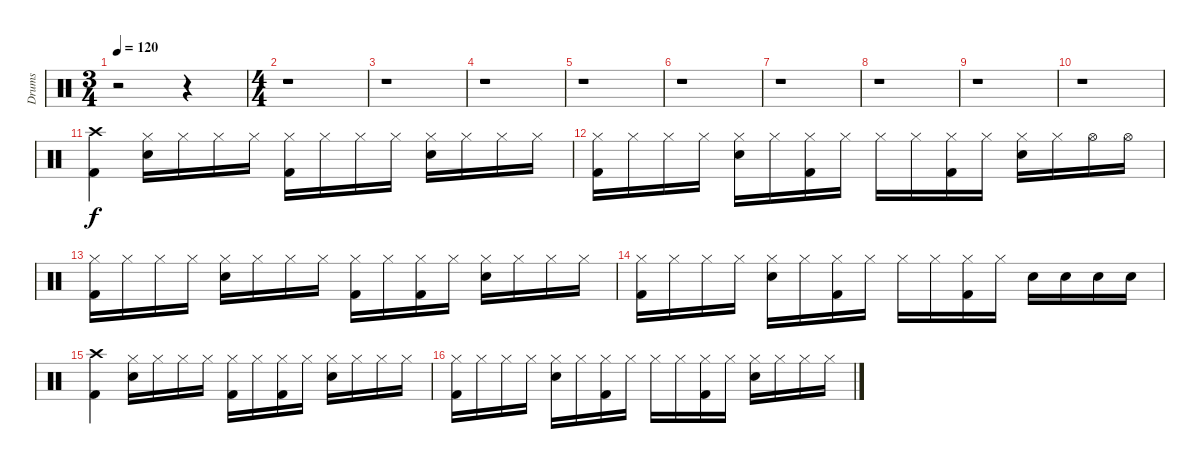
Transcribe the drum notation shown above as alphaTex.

\track ("Drums" "Drums") {instrument percussion}
\staff {score}
\articulation defaults
\ts (3 4)
\tempo 120
\clef neutral
\ks c
r.2{dy f} r.4 |
\ts (4 4)
r.1 |
r.1 |
r.1 |
r.1 |
r.1 |
r.1 |
r.1 |
r.1 |
r.1 |
("Crash high (hit)" "Kick (hit) 2").4 ("Hi-Hat (closed)" "Electric Snare (hit)").16 "Hi-Hat (closed)".16 "Hi-Hat (closed)".16 "Hi-Hat (closed)".16 ("Hi-Hat (closed)" "Kick (hit) 2").16 "Hi-Hat (closed)".16 "Hi-Hat (closed)".16 "Hi-Hat (closed)".16 ("Hi-Hat (closed)" "Electric Snare (hit)").16 "Hi-Hat (closed)".16 "Hi-Hat (closed)".16 "Hi-Hat (closed)".16 |
("Hi-Hat (closed)" "Kick (hit) 2").16 "Hi-Hat (closed)".16 "Hi-Hat (closed)".16 "Hi-Hat (closed)".16 ("Hi-Hat (closed)" "Electric Snare (hit)").16 "Hi-Hat (closed)".16 ("Hi-Hat (closed)" "Kick (hit) 2").16 "Hi-Hat (closed)".16 "Hi-Hat (closed)".16 "Hi-Hat (closed)".16 ("Hi-Hat (closed)" "Kick (hit) 2").16 "Hi-Hat (closed)".16 ("Hi-Hat (closed)" "Electric Snare (hit)").16 "Hi-Hat (closed)".16 "Hi-Hat (open)".16 "Hi-Hat (open)".16 |
("Hi-Hat (closed)" "Kick (hit) 2").16 "Hi-Hat (closed)".16 "Hi-Hat (closed)".16 "Hi-Hat (closed)".16 ("Hi-Hat (closed)" "Electric Snare (hit)").16 "Hi-Hat (closed)".16 "Hi-Hat (closed)".16 "Hi-Hat (closed)".16 ("Hi-Hat (closed)" "Kick (hit) 2").16 "Hi-Hat (closed)".16 ("Hi-Hat (closed)" "Kick (hit) 2").16 "Hi-Hat (closed)".16 ("Hi-Hat (closed)" "Electric Snare (hit)").16 "Hi-Hat (closed)".16 "Hi-Hat (closed)".16 "Hi-Hat (closed)".16 |
("Hi-Hat (closed)" "Kick (hit) 2").16 "Hi-Hat (closed)".16 "Hi-Hat (closed)".16 "Hi-Hat (closed)".16 ("Hi-Hat (closed)" "Electric Snare (hit)").16 "Hi-Hat (closed)".16 ("Hi-Hat (closed)" "Kick (hit) 2").16 "Hi-Hat (closed)".16 "Hi-Hat (closed)".16 "Hi-Hat (closed)".16 ("Hi-Hat (closed)" "Kick (hit) 2").16 "Hi-Hat (closed)".16 "Electric Snare (hit)".16 "Electric Snare (hit)".16 "Electric Snare (hit)".16 "Electric Snare (hit)".16 |
("Crash high (hit)" "Kick (hit) 2").4 ("Hi-Hat (closed)" "Electric Snare (hit)").16 "Hi-Hat (closed)".16 "Hi-Hat (closed)".16 "Hi-Hat (closed)".16 ("Hi-Hat (closed)" "Kick (hit) 2").16 "Hi-Hat (closed)".16 ("Hi-Hat (closed)" "Kick (hit) 2").16 "Hi-Hat (closed)".16 ("Hi-Hat (closed)" "Electric Snare (hit)").16 "Hi-Hat (closed)".16 "Hi-Hat (closed)".16 "Hi-Hat (closed)".16 |
("Hi-Hat (closed)" "Kick (hit) 2").16 "Hi-Hat (closed)".16 "Hi-Hat (closed)".16 "Hi-Hat (closed)".16 ("Hi-Hat (closed)" "Electric Snare (hit)").16 "Hi-Hat (closed)".16 ("Hi-Hat (closed)" "Kick (hit) 2").16 "Hi-Hat (closed)".16 "Hi-Hat (closed)".16 "Hi-Hat (closed)".16 ("Hi-Hat (closed)" "Kick (hit) 2").16 "Hi-Hat (closed)".16 ("Hi-Hat (closed)" "Electric Snare (hit)").16 "Hi-Hat (closed)".16 "Hi-Hat (closed)".16 "Hi-Hat (closed)".16
